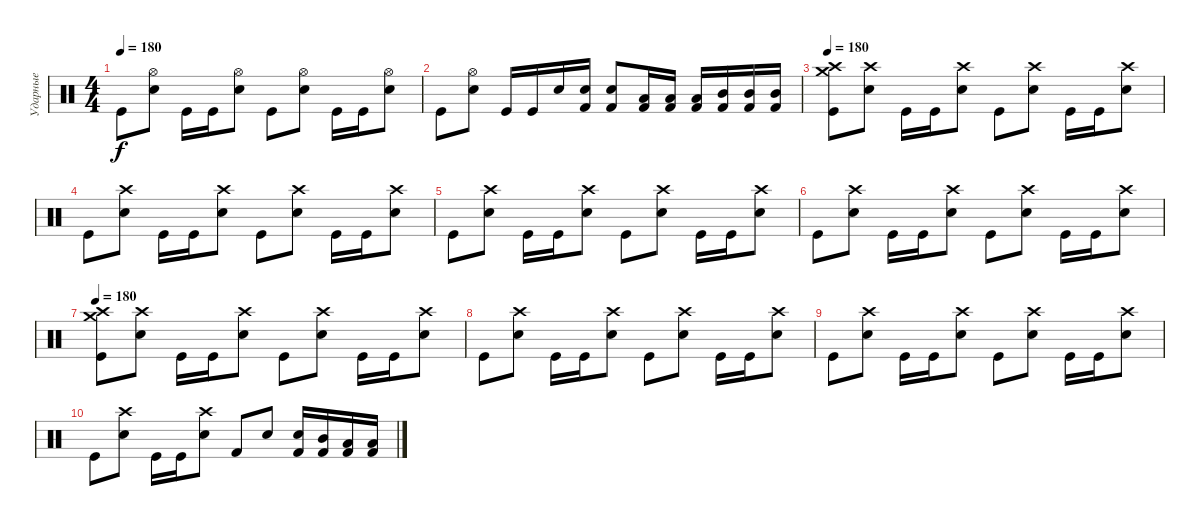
\track ("Ударные" "Ударные") {instrument percussion}
\staff {score}
\articulation defaults
\ts (4 4)
\tempo 180
\clef neutral
\ks c "Kick (hit)".8{dy f}
("Hi-Hat (open)" "Electric Snare (hit)").8 "Kick (hit)".16 "Kick (hit)".16 ("Hi-Hat (open)" "Electric Snare (hit)").8 "Kick (hit)".8 ("Hi-Hat (open)" "Electric Snare (hit)").8 "Kick (hit)".16 "Kick (hit)".16 ("Hi-Hat (open)" "Electric Snare (hit)").8 |
"Kick (hit)".8 ("Hi-Hat (open)" "Electric Snare (hit)").8 "Kick (hit)".16 "Kick (hit)".16 "Electric Snare (hit)".16 ("Electric Snare (hit)" "Kick (hit) 2").16 ("Electric Snare (hit)" "Kick (hit) 2").8 ("Low Tom (hit)" "Kick (hit) 2").16 ("Low Tom (hit)" "Kick (hit) 2").16 ("Low Tom (hit)" "Kick (hit) 2").16 ("Mid Tom (hit)" "Kick (hit) 2").16 ("Mid Tom (hit)" "Kick (hit) 2").16 ("Mid Tom (hit)" "Kick (hit) 2").16 |
\tempo 180
("Crash high (hit)" "Crash medium (hit)" "Kick (hit)").8 ("Crash high (hit)" "Electric Snare (hit)").8 "Kick (hit)".16 "Kick (hit)".16 ("Crash high (hit)" "Electric Snare (hit)").8 "Kick (hit)".8 ("Crash high (hit)" "Electric Snare (hit)").8 "Kick (hit)".16 "Kick (hit)".16 ("Crash high (hit)" "Electric Snare (hit)").8 |
"Kick (hit)".8 ("Crash high (hit)" "Electric Snare (hit)").8 "Kick (hit)".16 "Kick (hit)".16 ("Crash high (hit)" "Electric Snare (hit)").8 "Kick (hit)".8 ("Crash high (hit)" "Electric Snare (hit)").8 "Kick (hit)".16 "Kick (hit)".16 ("Crash high (hit)" "Electric Snare (hit)").8 |
"Kick (hit)".8 ("Crash high (hit)" "Electric Snare (hit)").8 "Kick (hit)".16 "Kick (hit)".16 ("Crash high (hit)" "Electric Snare (hit)").8 "Kick (hit)".8 ("Crash high (hit)" "Electric Snare (hit)").8 "Kick (hit)".16 "Kick (hit)".16 ("Crash high (hit)" "Electric Snare (hit)").8 |
"Kick (hit)".8 ("Crash high (hit)" "Electric Snare (hit)").8 "Kick (hit)".16 "Kick (hit)".16 ("Crash high (hit)" "Electric Snare (hit)").8 "Kick (hit)".8 ("Crash high (hit)" "Electric Snare (hit)").8 "Kick (hit)".16 "Kick (hit)".16 ("Crash high (hit)" "Electric Snare (hit)").8 |
\tempo 180
("Crash high (hit)" "Crash medium (hit)" "Kick (hit)").8 ("Crash high (hit)" "Electric Snare (hit)").8 "Kick (hit)".16 "Kick (hit)".16 ("Crash high (hit)" "Electric Snare (hit)").8 "Kick (hit)".8 ("Crash high (hit)" "Electric Snare (hit)").8 "Kick (hit)".16 "Kick (hit)".16 ("Crash high (hit)" "Electric Snare (hit)").8 |
"Kick (hit)".8 ("Crash high (hit)" "Electric Snare (hit)").8 "Kick (hit)".16 "Kick (hit)".16 ("Crash high (hit)" "Electric Snare (hit)").8 "Kick (hit)".8 ("Crash high (hit)" "Electric Snare (hit)").8 "Kick (hit)".16 "Kick (hit)".16 ("Crash high (hit)" "Electric Snare (hit)").8 |
"Kick (hit)".8 ("Crash high (hit)" "Electric Snare (hit)").8 "Kick (hit)".16 "Kick (hit)".16 ("Crash high (hit)" "Electric Snare (hit)").8 "Kick (hit)".8 ("Crash high (hit)" "Electric Snare (hit)").8 "Kick (hit)".16 "Kick (hit)".16 ("Crash high (hit)" "Electric Snare (hit)").8 |
"Kick (hit)".8 ("Crash high (hit)" "Electric Snare (hit)").8 "Kick (hit)".16 "Kick (hit)".16 ("Crash high (hit)" "Electric Snare (hit)").8 "Kick (hit) 2".8 "Electric Snare (hit)".8 ("Electric Snare (hit)" "Kick (hit) 2").16 ("Mid Tom (hit)" "Kick (hit) 2").16 ("Low Tom (hit)" "Kick (hit) 2").16 ("Low Tom (hit)" "Kick (hit) 2").16
